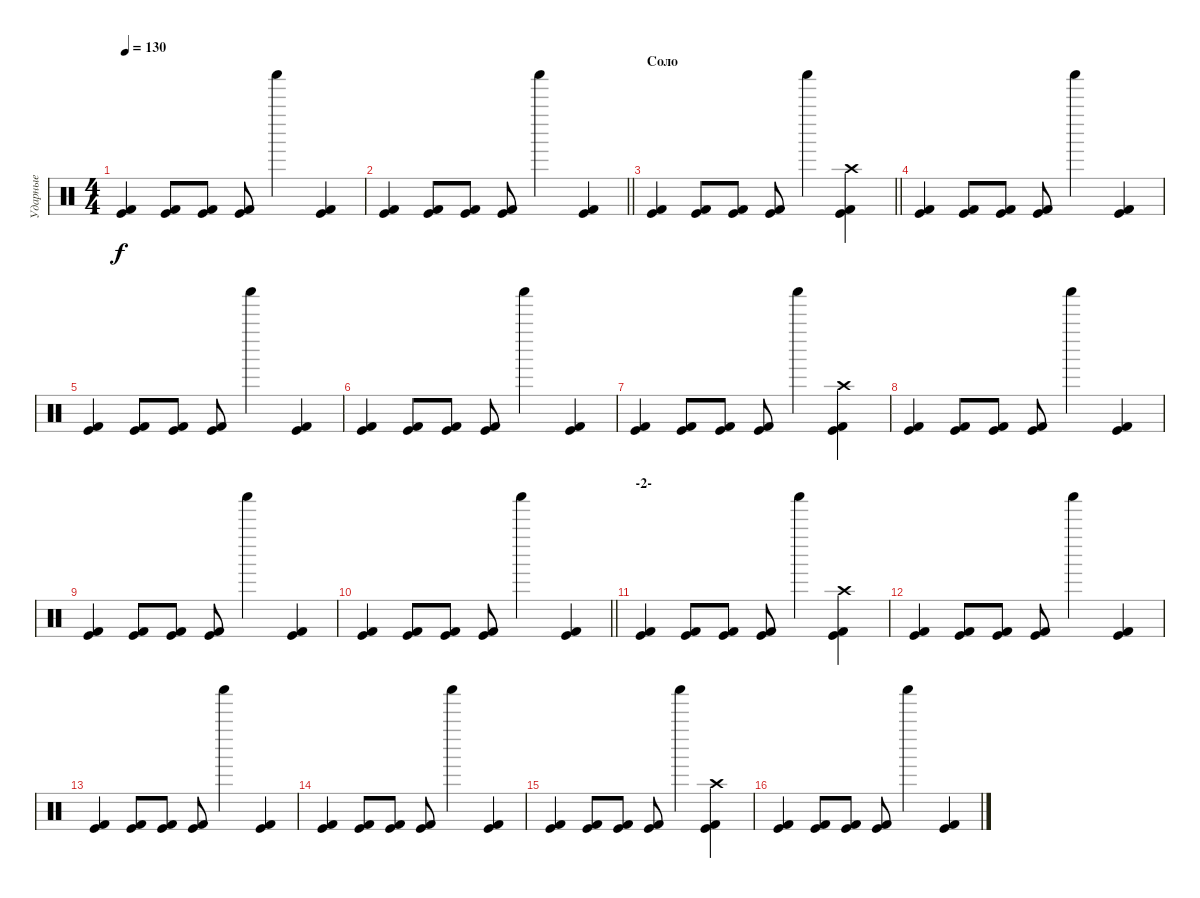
\track ("Ударные" "Ударные") {instrument percussion}
\staff {score}
\articulation defaults
\ts (4 4)
\tempo 130
\clef neutral
\ks c
("Kick (hit)" "Kick (hit) 2").4{dy f} ("Kick (hit)" "Kick (hit) 2").8 ("Kick (hit)" "Kick (hit) 2").8 ("Kick (hit)" "Kick (hit) 2").8 "Shaker (hit)".4 ("Kick (hit)" "Kick (hit) 2").4 |
\barLineRight lightlight
("Kick (hit)" "Kick (hit) 2").4 ("Kick (hit)" "Kick (hit) 2").8 ("Kick (hit)" "Kick (hit) 2").8 ("Kick (hit)" "Kick (hit) 2").8 "Shaker (hit)".4 ("Kick (hit)" "Kick (hit) 2").4 |
\section ("" "Соло")
\barLineRight lightlight
("Kick (hit)" "Kick (hit) 2").4 ("Kick (hit)" "Kick (hit) 2").8 ("Kick (hit)" "Kick (hit) 2").8 ("Kick (hit)" "Kick (hit) 2").8 "Shaker (hit)".4 ("Kick (hit)" "Kick (hit) 2" "Crash high (hit)").4 |
\section ("" "")
("Kick (hit)" "Kick (hit) 2").4 ("Kick (hit)" "Kick (hit) 2").8 ("Kick (hit)" "Kick (hit) 2").8 ("Kick (hit)" "Kick (hit) 2").8 "Shaker (hit)".4 ("Kick (hit)" "Kick (hit) 2").4 |
("Kick (hit)" "Kick (hit) 2").4 ("Kick (hit)" "Kick (hit) 2").8 ("Kick (hit)" "Kick (hit) 2").8 ("Kick (hit)" "Kick (hit) 2").8 "Shaker (hit)".4 ("Kick (hit)" "Kick (hit) 2").4 |
("Kick (hit)" "Kick (hit) 2").4 ("Kick (hit)" "Kick (hit) 2").8 ("Kick (hit)" "Kick (hit) 2").8 ("Kick (hit)" "Kick (hit) 2").8 "Shaker (hit)".4 ("Kick (hit)" "Kick (hit) 2").4 |
("Kick (hit)" "Kick (hit) 2").4 ("Kick (hit)" "Kick (hit) 2").8 ("Kick (hit)" "Kick (hit) 2").8 ("Kick (hit)" "Kick (hit) 2").8 "Shaker (hit)".4 ("Kick (hit)" "Kick (hit) 2" "Crash high (hit)").4 |
("Kick (hit)" "Kick (hit) 2").4 ("Kick (hit)" "Kick (hit) 2").8 ("Kick (hit)" "Kick (hit) 2").8 ("Kick (hit)" "Kick (hit) 2").8 "Shaker (hit)".4 ("Kick (hit)" "Kick (hit) 2").4 |
("Kick (hit)" "Kick (hit) 2").4 ("Kick (hit)" "Kick (hit) 2").8 ("Kick (hit)" "Kick (hit) 2").8 ("Kick (hit)" "Kick (hit) 2").8 "Shaker (hit)".4 ("Kick (hit)" "Kick (hit) 2").4 |
\barLineRight lightlight
("Kick (hit)" "Kick (hit) 2").4 ("Kick (hit)" "Kick (hit) 2").8 ("Kick (hit)" "Kick (hit) 2").8 ("Kick (hit)" "Kick (hit) 2").8 "Shaker (hit)".4 ("Kick (hit)" "Kick (hit) 2").4 |
\section ("" "-2-")
("Kick (hit)" "Kick (hit) 2").4 ("Kick (hit)" "Kick (hit) 2").8 ("Kick (hit)" "Kick (hit) 2").8 ("Kick (hit)" "Kick (hit) 2").8 "Shaker (hit)".4 ("Kick (hit)" "Kick (hit) 2" "Crash high (hit)").4 |
("Kick (hit)" "Kick (hit) 2").4 ("Kick (hit)" "Kick (hit) 2").8 ("Kick (hit)" "Kick (hit) 2").8 ("Kick (hit)" "Kick (hit) 2").8 "Shaker (hit)".4 ("Kick (hit)" "Kick (hit) 2").4 |
("Kick (hit)" "Kick (hit) 2").4 ("Kick (hit)" "Kick (hit) 2").8 ("Kick (hit)" "Kick (hit) 2").8 ("Kick (hit)" "Kick (hit) 2").8 "Shaker (hit)".4 ("Kick (hit)" "Kick (hit) 2").4 |
("Kick (hit)" "Kick (hit) 2").4 ("Kick (hit)" "Kick (hit) 2").8 ("Kick (hit)" "Kick (hit) 2").8 ("Kick (hit)" "Kick (hit) 2").8 "Shaker (hit)".4 ("Kick (hit)" "Kick (hit) 2").4 |
("Kick (hit)" "Kick (hit) 2").4 ("Kick (hit)" "Kick (hit) 2").8 ("Kick (hit)" "Kick (hit) 2").8 ("Kick (hit)" "Kick (hit) 2").8 "Shaker (hit)".4 ("Kick (hit)" "Kick (hit) 2" "Crash high (hit)").4 |
("Kick (hit)" "Kick (hit) 2").4 ("Kick (hit)" "Kick (hit) 2").8 ("Kick (hit)" "Kick (hit) 2").8 ("Kick (hit)" "Kick (hit) 2").8 "Shaker (hit)".4 ("Kick (hit)" "Kick (hit) 2").4
